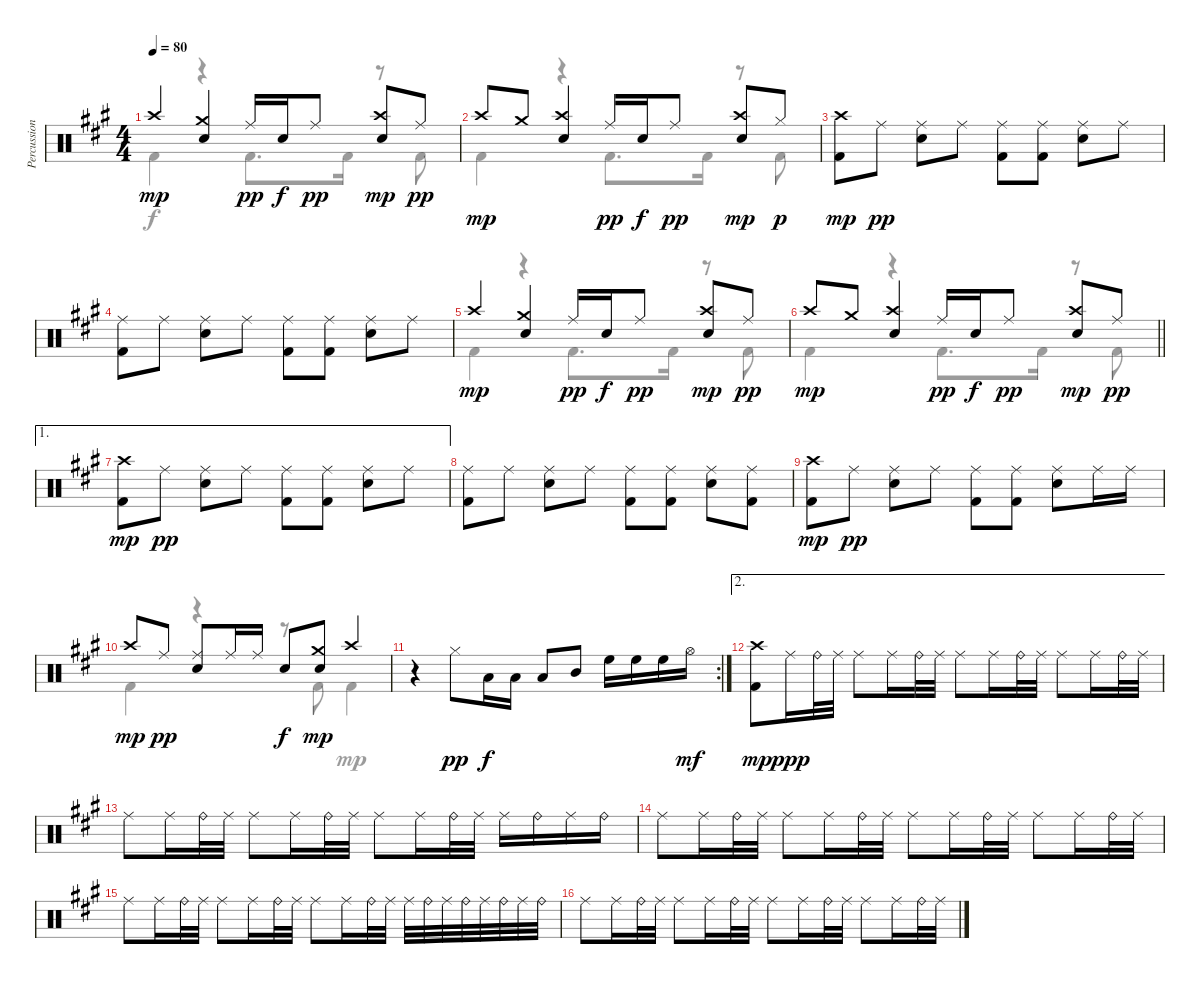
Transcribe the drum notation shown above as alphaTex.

\track ("Percussion" "Percussion") {instrument percussion}
\staff {score}
\articulation defaults
\voice
\ts (4 4)
\tempo 80
\clef neutral
\ks a "Crash high (hit)".4{dy mp}
("Crash medium (hit)" "Electric Snare (hit)").4 "Ride (middle)".16{dy pp} "Electric Snare (hit)".16{dy f} "Ride (middle)".8{dy pp} ("Crash high (hit)" "Electric Snare (hit)").8{dy mp} "Ride (middle)".8{dy pp} |
"Crash high (hit)".8{dy mp} "Crash medium (hit)".8 ("Crash high (hit)" "Electric Snare (hit)").4 "Ride (middle)".16{dy pp} "Electric Snare (hit)".16{dy f} "Ride (middle)".8{dy pp} ("Crash high (hit)" "Electric Snare (hit)").8{dy mp} "Hi-Hat (closed)".8{dy p} |
("Crash high (hit)" "Kick (hit) 2").8{dy mp} "Ride (middle)".8{dy pp} ("Ride (middle)" "Electric Snare (hit)").8 "Ride (middle)".8 ("Ride (middle)" "Kick (hit) 2").8 ("Ride (middle)" "Kick (hit) 2").8 ("Ride (middle)" "Electric Snare (hit)").8 "Ride (middle)".8 |
("Ride (middle)" "Kick (hit) 2").8 "Ride (middle)".8 ("Ride (middle)" "Electric Snare (hit)").8 "Ride (middle)".8 ("Ride (middle)" "Kick (hit) 2").8 ("Ride (middle)" "Kick (hit) 2").8 ("Ride (middle)" "Electric Snare (hit)").8 "Ride (middle)".8 |
"Crash high (hit)".4{dy mp} ("Crash medium (hit)" "Electric Snare (hit)").4 "Ride (middle)".16{dy pp} "Electric Snare (hit)".16{dy f} "Ride (middle)".8{dy pp} ("Crash high (hit)" "Electric Snare (hit)").8{dy mp} "Ride (middle)".8{dy pp} |
\barLineRight lightlight "Crash high (hit)".8{dy mp} "Crash medium (hit)".8
("Crash high (hit)" "Electric Snare (hit)").4 "Ride (middle)".16{dy pp} "Electric Snare (hit)".16{dy f} "Ride (middle)".8{dy pp} ("Crash high (hit)" "Electric Snare (hit)").8{dy mp} "Ride (middle)".8{dy pp} |
\ae 1
("Crash high (hit)" "Kick (hit) 2").8{dy mp} "Ride (middle)".8{dy pp} ("Ride (middle)" "Electric Snare (hit)").8 "Ride (middle)".8 ("Ride (middle)" "Kick (hit) 2").8 ("Ride (middle)" "Kick (hit) 2").8 ("Ride (middle)" "Electric Snare (hit)").8 "Ride (middle)".8 |
("Ride (middle)" "Kick (hit) 2").8 "Ride (middle)".8 ("Ride (middle)" "Electric Snare (hit)").8 "Ride (middle)".8 ("Ride (middle)" "Kick (hit) 2").8 ("Ride (middle)" "Kick (hit) 2").8 ("Ride (middle)" "Electric Snare (hit)").8 ("Ride (middle)" "Kick (hit) 2").8 |
("Crash high (hit)" "Kick (hit) 2").8{dy mp} "Ride (middle)".8{dy pp} ("Ride (middle)" "Electric Snare (hit)").8 "Ride (middle)".8 ("Ride (middle)" "Kick (hit) 2").8 ("Ride (middle)" "Kick (hit) 2").8 ("Ride (middle)" "Electric Snare (hit)").8 "Ride (middle)".16 "Ride (middle)".16 |
"Crash high (hit)".8{dy mp} "Ride (middle)".8{dy pp} ("Ride (middle)" "Electric Snare (hit)").8 "Ride (middle)".16 "Ride (middle)".16 "Electric Snare (hit)".8{dy f} ("Crash medium (hit)" "Electric Snare (hit)").8{dy mp} "Crash high (hit)".4 |
\rc 2
r.4 "Hi-Hat (closed)".8{dy pp} "Low Tom (hit)".16{dy f} "Low Tom (hit)".16 "Low Tom (hit)".8 "Mid Tom (hit)".8 "High Floor Tom (hit)".16 "High Floor Tom (hit)".16 "High Floor Tom (hit)".16 "Hi-Hat (open)".16{dy mf} |
\ae 2
("Crash high (hit)" "Kick (hit) 2").8{dy mp} "Ride (middle)".16{dy ppp} "Ride (bell)".32 "Ride (middle)".32 "Ride (middle)".8 "Ride (middle)".16 "Ride (bell)".32 "Ride (middle)".32 "Ride (middle)".8 "Ride (middle)".16 "Ride (bell)".32 "Ride (middle)".32 "Ride (middle)".8 "Ride (middle)".16 "Ride (bell)".32 "Ride (middle)".32 |
"Ride (middle)".8 "Ride (middle)".16 "Ride (bell)".32 "Ride (middle)".32 "Ride (middle)".8 "Ride (middle)".16 "Ride (bell)".32 "Ride (middle)".32 "Ride (middle)".8 "Ride (middle)".16 "Ride (bell)".32 "Ride (middle)".32 "Ride (middle)".16 "Ride (bell)".16 "Ride (middle)".16 "Ride (bell)".16 |
"Ride (middle)".8 "Ride (middle)".16 "Ride (bell)".32 "Ride (middle)".32 "Ride (middle)".8 "Ride (middle)".16 "Ride (bell)".32 "Ride (middle)".32 "Ride (middle)".8 "Ride (middle)".16 "Ride (bell)".32 "Ride (middle)".32 "Ride (middle)".8 "Ride (middle)".16 "Ride (bell)".32 "Ride (middle)".32 |
"Ride (middle)".8 "Ride (middle)".16 "Ride (bell)".32 "Ride (middle)".32 "Ride (middle)".8 "Ride (middle)".16 "Ride (bell)".32 "Ride (middle)".32 "Ride (middle)".8 "Ride (middle)".16 "Ride (bell)".32 "Ride (middle)".32 "Ride (middle)".32 "Ride (bell)".32 "Ride (middle)".32 "Ride (bell)".32 "Ride (middle)".32 "Ride (bell)".32 "Ride (middle)".32 "Ride (bell)".32 |
"Ride (middle)".8 "Ride (middle)".16 "Ride (bell)".32 "Ride (middle)".32 "Ride (middle)".8 "Ride (middle)".16 "Ride (bell)".32 "Ride (middle)".32 "Ride (middle)".8 "Ride (middle)".16 "Ride (bell)".32 "Ride (middle)".32 "Ride (middle)".8 "Ride (middle)".16 "Ride (bell)".32 "Ride (middle)".32
\voice
\clef neutral
\ottava regular
\simile none
\ks a "Kick (hit) 2".4{dy f}
r.4 "Kick (hit) 2".8{d} "Kick (hit) 2".16 r.8 "Kick (hit) 2".8 |
"Kick (hit) 2".4 r.4 "Kick (hit) 2".8{d} "Kick (hit) 2".16 r.8 "Kick (hit) 2".8 |
|
|
"Kick (hit) 2".4 r.4 "Kick (hit) 2".8{d} "Kick (hit) 2".16 r.8 "Kick (hit) 2".8 |
\barLineRight lightlight "Kick (hit) 2".4
r.4 "Kick (hit) 2".8{d} "Kick (hit) 2".16 r.8 "Kick (hit) 2".8 |
|
|
|
"Kick (hit) 2".4 r.4 r.8 "Kick (hit) 2".8 "Kick (hit) 2".4{dy mp} |
|
|
|
|
|
